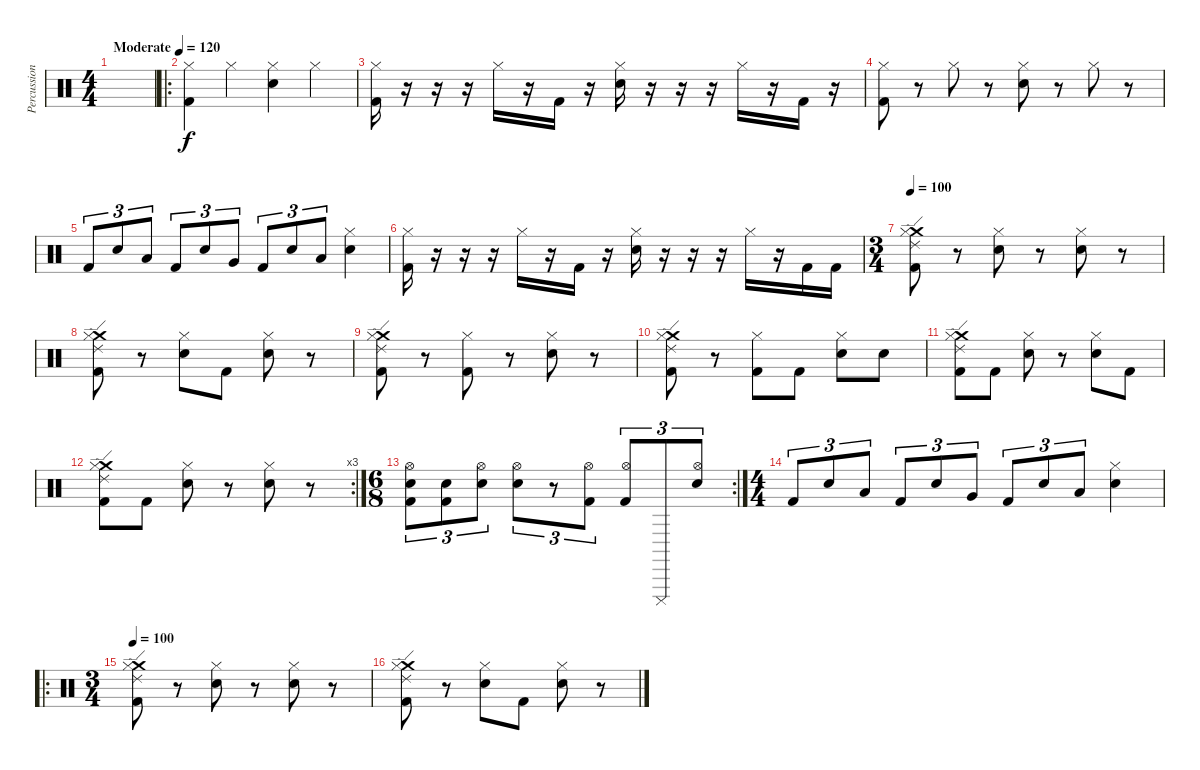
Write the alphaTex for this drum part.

\track ("Percussion" "Percussion") {instrument percussion}
\staff {score}
\articulation defaults
\ts (4 4)
\tempo (120 "Moderate")
\clef neutral
\ks c
|
\ro
("Hi-Hat (closed)" "Kick (hit) 2").4 "Hi-Hat (closed)".4 ("Hi-Hat (closed)" "Snare (hit) 2").4 "Hi-Hat (closed)".4 |
("Hi-Hat (closed)" "Kick (hit) 2").16 r.16 r.16 r.16 "Hi-Hat (closed)".16 r.16 "Kick (hit) 2".16 r.16 ("Hi-Hat (closed)" "Snare (hit) 2").16 r.16 r.16 r.16 "Hi-Hat (closed)".16 r.16 "Kick (hit) 2".16 r.16 |
("Hi-Hat (closed)" "Kick (hit) 2").8 r.8 "Hi-Hat (closed)".8 r.8 ("Hi-Hat (closed)" "Snare (hit) 2").8 r.8 "Hi-Hat (closed)".8 r.8 |
"Kick (hit) 2".8{tu (3 2)} "Snare (hit) 2".8{tu (3 2)} "Low Floor Tom (hit)".8{tu (3 2)} "Kick (hit) 2".8{tu (3 2)} "Snare (hit) 2".8{tu (3 2)} "Very Low Tom (hit)".8{tu (3 2)} "Kick (hit) 2".8{tu (3 2)} "Snare (hit) 2".8{tu (3 2)} "Low Tom (hit)".8{tu (3 2)} ("Hi-Hat (closed)" "Snare (hit) 2").4 |
("Hi-Hat (closed)" "Kick (hit) 2").16 r.16 r.16 r.16 "Hi-Hat (closed)".16 r.16 "Kick (hit) 2".16 r.16 ("Hi-Hat (closed)" "Snare (hit) 2").16 r.16 r.16 r.16 "Hi-Hat (closed)".16 r.16 "Kick (hit) 2".16 "Kick (hit) 2".16 |
\ts (3 4)
\tempo 100
("Kick (hit) 2" "Ride (edge) 2" "Crash medium (hit)" "Hi-Hat (closed)").8 r.8 ("Snare (hit) 2" "Hi-Hat (closed)").8 r.8 ("Snare (hit) 2" "Hi-Hat (closed)").8 r.8 |
("Kick (hit) 2" "Ride (edge) 2" "Crash medium (hit)" "Hi-Hat (closed)").8 r.8 ("Snare (hit) 2" "Hi-Hat (closed)").8 "Kick (hit) 2".8 ("Snare (hit) 2" "Hi-Hat (closed)").8 r.8 |
("Kick (hit) 2" "Ride (edge) 2" "Crash medium (hit)" "Hi-Hat (closed)").8 r.8 ("Kick (hit) 2" "Hi-Hat (closed)").8 r.8 ("Snare (hit) 2" "Hi-Hat (closed)").8 r.8 |
("Kick (hit) 2" "Ride (edge) 2" "Crash medium (hit)" "Hi-Hat (closed)").8 r.8 ("Kick (hit) 2" "Hi-Hat (closed)").8 "Kick (hit) 2".8 ("Snare (hit) 2" "Hi-Hat (closed)").8 "Snare (hit) 2".8 |
("Kick (hit) 2" "Ride (edge) 2" "Crash medium (hit)" "Hi-Hat (closed)").8 "Kick (hit) 2".8 ("Snare (hit) 2" "Hi-Hat (closed)").8 r.8 ("Snare (hit) 2" "Hi-Hat (closed)").8 "Kick (hit) 2".8 |
\rc 3
("Kick (hit) 2" "Ride (edge) 2" "Crash medium (hit)" "Hi-Hat (closed)").8 "Kick (hit) 2".8 ("Snare (hit) 2" "Hi-Hat (closed)").8 r.8 ("Snare (hit) 2" "Hi-Hat (closed)").8 r.8 |
\rc 2
\ts (6 8)
("Kick (hit) 2" "Snare (hit) 2" "Hi-Hat (open)").8{tu (3 2)} ("Kick (hit) 2" "Snare (hit) 2").8{tu (3 2)} ("Snare (hit) 2" "Hi-Hat (open)").8{tu (3 2)} ("Snare (hit) 2" "Hi-Hat (open)").8{tu (3 2)} r.8{tu (3 2)} ("Kick (hit) 2" "Hi-Hat (open)").8{tu (3 2)} ("Kick (hit) 2" "Hi-Hat (open)").8{tu (3 2)} "Cuica (mute)".8{tu (3 2)} ("Snare (hit) 2" "Hi-Hat (open)").8{tu (3 2)} |
\ts (4 4)
"Kick (hit) 2".8{tu (3 2)} "Snare (hit) 2".8{tu (3 2)} "Low Floor Tom (hit)".8{tu (3 2)} "Kick (hit) 2".8{tu (3 2)} "Snare (hit) 2".8{tu (3 2)} "Very Low Tom (hit)".8{tu (3 2)} "Kick (hit) 2".8{tu (3 2)} "Snare (hit) 2".8{tu (3 2)} "Low Tom (hit)".8{tu (3 2)} ("Hi-Hat (closed)" "Snare (hit) 2").4 |
\ro
\ts (3 4)
\tempo 100
("Kick (hit) 2" "Ride (edge) 2" "Crash medium (hit)" "Hi-Hat (closed)").8 r.8 ("Snare (hit) 2" "Hi-Hat (closed)").8 r.8 ("Snare (hit) 2" "Hi-Hat (closed)").8 r.8 |
("Kick (hit) 2" "Ride (edge) 2" "Crash medium (hit)" "Hi-Hat (closed)").8 r.8 ("Snare (hit) 2" "Hi-Hat (closed)").8 "Kick (hit) 2".8 ("Snare (hit) 2" "Hi-Hat (closed)").8 r.8
